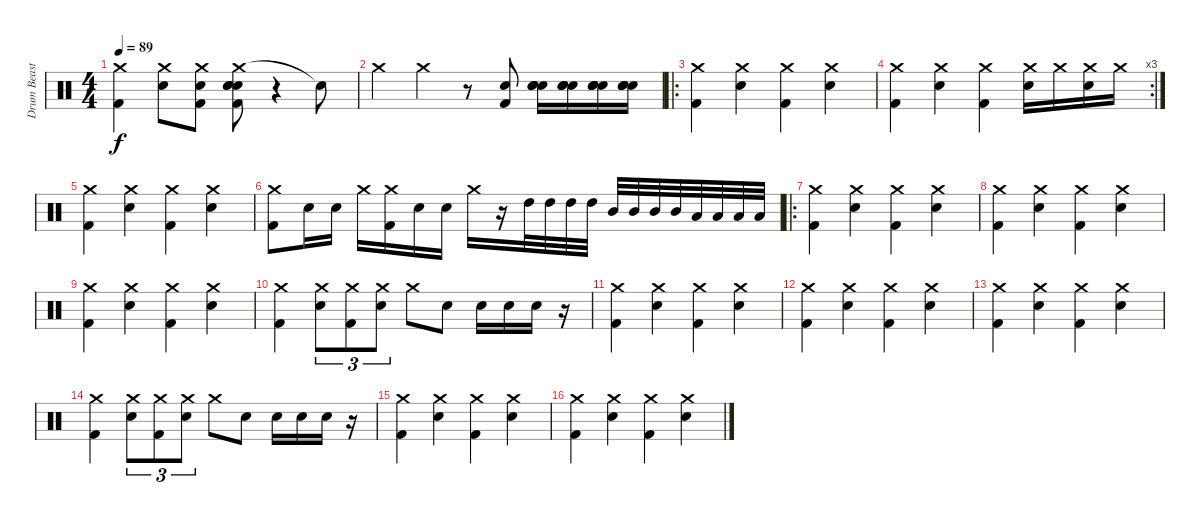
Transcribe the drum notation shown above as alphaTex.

\track ("Drum Beast Lars" "Drum Beast") {instrument percussion}
\staff {score}
\articulation defaults
\ts (4 4)
\tempo 89
\clef neutral
\ks c
("Crash medium (hit)" "Kick (hit) 2").4{dy f} ("Crash medium (hit)" "Electric Snare (hit)").8 ("Crash medium (hit)" "Electric Snare (hit)" "Kick (hit) 2").8 ("Crash medium (hit)" "Electric Snare (hit)" "Electric Snare (hit)" "Electric Snare (hit)" "Kick (hit) 2").8 r.4 "Snare (hit)"{t}.8 |
"Crash medium (hit)".4 "Crash medium (hit)".4 r.8 ("Electric Snare (hit)" "Kick (hit) 2").8 ("Electric Snare (hit)" "Electric Snare (hit)" "Electric Snare (hit)" "Electric Snare (hit)").16 ("Electric Snare (hit)" "Electric Snare (hit)" "Electric Snare (hit)" "Electric Snare (hit)").16 ("Electric Snare (hit)" "Electric Snare (hit)" "Electric Snare (hit)" "Electric Snare (hit)").16 ("Electric Snare (hit)" "Electric Snare (hit)" "Electric Snare (hit)" "Electric Snare (hit)").16 |
\ro
("Crash medium (hit)" "Kick (hit) 2").4 ("Crash medium (hit)" "Electric Snare (hit)").4 ("Crash medium (hit)" "Kick (hit) 2").4 ("Crash medium (hit)" "Electric Snare (hit)").4 |
\rc 3
("Crash medium (hit)" "Kick (hit) 2").4 ("Crash medium (hit)" "Electric Snare (hit)").4 ("Crash medium (hit)" "Kick (hit) 2").4 ("Crash medium (hit)" "Electric Snare (hit)").16 "Crash medium (hit)".16 ("Crash medium (hit)" "Electric Snare (hit)").16 "Crash medium (hit)".16 |
("Crash medium (hit)" "Kick (hit) 2").4 ("Crash medium (hit)" "Electric Snare (hit)").4 ("Crash medium (hit)" "Kick (hit) 2").4 ("Crash medium (hit)" "Electric Snare (hit)").4 |
("Crash medium (hit)" "Kick (hit) 2").8 "Electric Snare (hit)".16 "Electric Snare (hit)".16 "Crash medium (hit)".16 ("Kick (hit) 2" "Crash medium (hit)").16 "Electric Snare (hit)".16 "Electric Snare (hit)".16 "Crash medium (hit)".16 r.16 "High Tom (hit)".32 "High Tom (hit)".32 "High Tom (hit)".32 "High Tom (hit)".32 "Mid Tom (hit)".32 "Mid Tom (hit)".32 "Mid Tom (hit)".32 "Mid Tom (hit)".32 "Low Tom (hit)".32 "Low Tom (hit)".32 "Low Tom (hit)".32 "Low Tom (hit)".32 |
\ro
("Crash medium (hit)" "Kick (hit) 2").4 ("Crash medium (hit)" "Electric Snare (hit)").4 ("Crash medium (hit)" "Kick (hit) 2").4 ("Crash medium (hit)" "Electric Snare (hit)").4 |
("Crash medium (hit)" "Kick (hit) 2").4 ("Crash medium (hit)" "Electric Snare (hit)").4 ("Crash medium (hit)" "Kick (hit) 2").4 ("Crash medium (hit)" "Electric Snare (hit)").4 |
("Crash medium (hit)" "Kick (hit) 2").4 ("Crash medium (hit)" "Electric Snare (hit)").4 ("Crash medium (hit)" "Kick (hit) 2").4 ("Crash medium (hit)" "Electric Snare (hit)").4 |
("Crash medium (hit)" "Kick (hit) 2").4 ("Crash medium (hit)" "Electric Snare (hit)").8{tu (3 2)} ("Crash medium (hit)" "Kick (hit) 2").8{tu (3 2)} ("Crash medium (hit)" "Electric Snare (hit)").8{tu (3 2)} "Crash medium (hit)".8 "Electric Snare (hit)".8 "Electric Snare (hit)".16 "Electric Snare (hit)".16 "Electric Snare (hit)".16 r.16 |
("Crash medium (hit)" "Kick (hit) 2").4 ("Crash medium (hit)" "Electric Snare (hit)").4 ("Crash medium (hit)" "Kick (hit) 2").4 ("Crash medium (hit)" "Electric Snare (hit)").4 |
("Crash medium (hit)" "Kick (hit) 2").4 ("Crash medium (hit)" "Electric Snare (hit)").4 ("Crash medium (hit)" "Kick (hit) 2").4 ("Crash medium (hit)" "Electric Snare (hit)").4 |
("Crash medium (hit)" "Kick (hit) 2").4 ("Crash medium (hit)" "Electric Snare (hit)").4 ("Crash medium (hit)" "Kick (hit) 2").4 ("Crash medium (hit)" "Electric Snare (hit)").4 |
("Crash medium (hit)" "Kick (hit) 2").4 ("Crash medium (hit)" "Electric Snare (hit)").8{tu (3 2)} ("Crash medium (hit)" "Kick (hit) 2").8{tu (3 2)} ("Crash medium (hit)" "Electric Snare (hit)").8{tu (3 2)} "Crash medium (hit)".8 "Electric Snare (hit)".8 "Electric Snare (hit)".16 "Electric Snare (hit)".16 "Electric Snare (hit)".16 r.16 |
("Crash medium (hit)" "Kick (hit) 2").4 ("Crash medium (hit)" "Electric Snare (hit)").4 ("Crash medium (hit)" "Kick (hit) 2").4 ("Crash medium (hit)" "Electric Snare (hit)").4 |
("Crash medium (hit)" "Kick (hit) 2").4 ("Crash medium (hit)" "Electric Snare (hit)").4 ("Crash medium (hit)" "Kick (hit) 2").4 ("Crash medium (hit)" "Electric Snare (hit)").4
